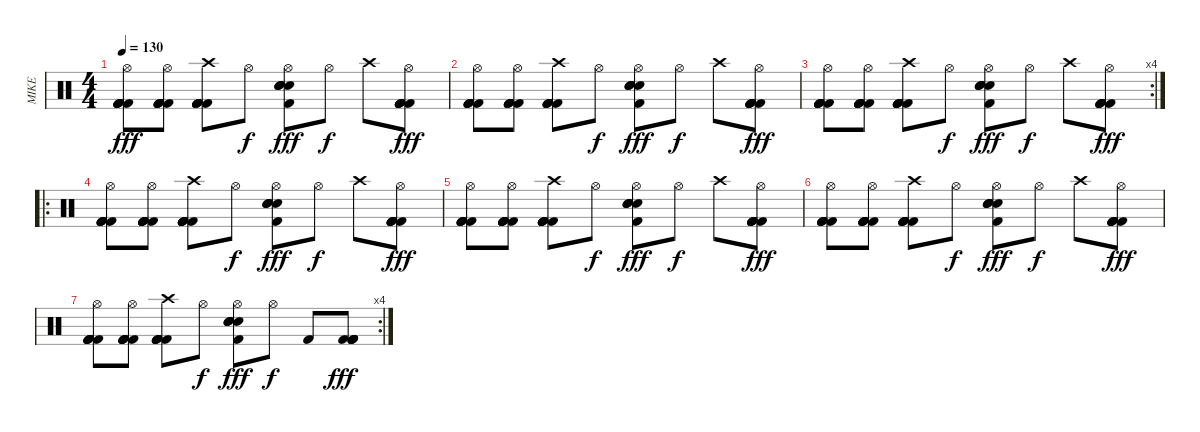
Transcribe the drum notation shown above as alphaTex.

\track ("MIKE" "MIKE") {instrument percussion}
\staff {score}
\articulation defaults
\ts (4 4)
\tempo 130
\clef neutral
\ks c
("Hi-Hat (open)" "Kick (hit) 2" "Kick (hit) 2" "Kick (hit) 2" "Kick (hit) 2" "Kick (hit) 2").8{dy fff} ("Hi-Hat (open)" "Kick (hit) 2" "Kick (hit) 2" "Kick (hit) 2" "Kick (hit) 2" "Kick (hit) 2").8 ("Crash high (hit)" "Kick (hit) 2" "Kick (hit) 2" "Kick (hit) 2" "Kick (hit) 2" "Kick (hit) 2").8 "Hi-Hat (open)".8{dy f} ("Hi-Hat (open)" "Kick (hit) 2" "Snare (hit) 2" "Snare (hit) 2" "Snare (hit) 2" "Snare (hit) 2").8{dy fff} "Hi-Hat (open)".8{dy f} "Crash high (hit)".8 ("Hi-Hat (open)" "Kick (hit) 2" "Kick (hit) 2" "Kick (hit) 2" "Kick (hit) 2" "Kick (hit) 2").8{dy fff} |
("Hi-Hat (open)" "Kick (hit) 2" "Kick (hit) 2" "Kick (hit) 2" "Kick (hit) 2" "Kick (hit) 2").8 ("Hi-Hat (open)" "Kick (hit) 2" "Kick (hit) 2" "Kick (hit) 2" "Kick (hit) 2" "Kick (hit) 2").8 ("Crash high (hit)" "Kick (hit) 2" "Kick (hit) 2" "Kick (hit) 2" "Kick (hit) 2" "Kick (hit) 2").8 "Hi-Hat (open)".8{dy f} ("Hi-Hat (open)" "Kick (hit) 2" "Snare (hit) 2" "Snare (hit) 2" "Snare (hit) 2" "Snare (hit) 2").8{dy fff} "Hi-Hat (open)".8{dy f} "Crash high (hit)".8 ("Hi-Hat (open)" "Kick (hit) 2" "Kick (hit) 2" "Kick (hit) 2" "Kick (hit) 2" "Kick (hit) 2").8{dy fff} |
\rc 4
("Hi-Hat (open)" "Kick (hit) 2" "Kick (hit) 2" "Kick (hit) 2" "Kick (hit) 2" "Kick (hit) 2").8 ("Hi-Hat (open)" "Kick (hit) 2" "Kick (hit) 2" "Kick (hit) 2" "Kick (hit) 2" "Kick (hit) 2").8 ("Crash high (hit)" "Kick (hit) 2" "Kick (hit) 2" "Kick (hit) 2" "Kick (hit) 2" "Kick (hit) 2").8 "Hi-Hat (open)".8{dy f} ("Hi-Hat (open)" "Kick (hit) 2" "Snare (hit) 2" "Snare (hit) 2" "Snare (hit) 2" "Snare (hit) 2").8{dy fff} "Hi-Hat (open)".8{dy f} "Crash high (hit)".8 ("Hi-Hat (open)" "Kick (hit) 2" "Kick (hit) 2" "Kick (hit) 2" "Kick (hit) 2" "Kick (hit) 2").8{dy fff} |
\ro
("Hi-Hat (open)" "Kick (hit) 2" "Kick (hit) 2" "Kick (hit) 2" "Kick (hit) 2" "Kick (hit) 2").8 ("Hi-Hat (open)" "Kick (hit) 2" "Kick (hit) 2" "Kick (hit) 2" "Kick (hit) 2" "Kick (hit) 2").8 ("Crash high (hit)" "Kick (hit) 2" "Kick (hit) 2" "Kick (hit) 2" "Kick (hit) 2" "Kick (hit) 2").8 "Hi-Hat (open)".8{dy f} ("Hi-Hat (open)" "Kick (hit) 2" "Snare (hit) 2" "Snare (hit) 2" "Snare (hit) 2" "Snare (hit) 2").8{dy fff} "Hi-Hat (open)".8{dy f} "Crash high (hit)".8 ("Hi-Hat (open)" "Kick (hit) 2" "Kick (hit) 2" "Kick (hit) 2" "Kick (hit) 2" "Kick (hit) 2").8{dy fff} |
("Hi-Hat (open)" "Kick (hit) 2" "Kick (hit) 2" "Kick (hit) 2" "Kick (hit) 2" "Kick (hit) 2").8 ("Hi-Hat (open)" "Kick (hit) 2" "Kick (hit) 2" "Kick (hit) 2" "Kick (hit) 2" "Kick (hit) 2").8 ("Crash high (hit)" "Kick (hit) 2" "Kick (hit) 2" "Kick (hit) 2" "Kick (hit) 2" "Kick (hit) 2").8 "Hi-Hat (open)".8{dy f} ("Hi-Hat (open)" "Kick (hit) 2" "Snare (hit) 2" "Snare (hit) 2" "Snare (hit) 2" "Snare (hit) 2").8{dy fff} "Hi-Hat (open)".8{dy f} "Crash high (hit)".8 ("Hi-Hat (open)" "Kick (hit) 2" "Kick (hit) 2" "Kick (hit) 2" "Kick (hit) 2" "Kick (hit) 2").8{dy fff} |
("Hi-Hat (open)" "Kick (hit) 2" "Kick (hit) 2" "Kick (hit) 2" "Kick (hit) 2" "Kick (hit) 2").8 ("Hi-Hat (open)" "Kick (hit) 2" "Kick (hit) 2" "Kick (hit) 2" "Kick (hit) 2" "Kick (hit) 2").8 ("Crash high (hit)" "Kick (hit) 2" "Kick (hit) 2" "Kick (hit) 2" "Kick (hit) 2" "Kick (hit) 2").8 "Hi-Hat (open)".8{dy f} ("Hi-Hat (open)" "Kick (hit) 2" "Snare (hit) 2" "Snare (hit) 2" "Snare (hit) 2" "Snare (hit) 2").8{dy fff} "Hi-Hat (open)".8{dy f} "Crash high (hit)".8 ("Hi-Hat (open)" "Kick (hit) 2" "Kick (hit) 2" "Kick (hit) 2" "Kick (hit) 2" "Kick (hit) 2").8{dy fff} |
\rc 4
("Hi-Hat (open)" "Kick (hit) 2" "Kick (hit) 2" "Kick (hit) 2" "Kick (hit) 2" "Kick (hit) 2").8 ("Hi-Hat (open)" "Kick (hit) 2" "Kick (hit) 2" "Kick (hit) 2" "Kick (hit) 2" "Kick (hit) 2").8 ("Crash high (hit)" "Kick (hit) 2" "Kick (hit) 2" "Kick (hit) 2" "Kick (hit) 2" "Kick (hit) 2").8 "Hi-Hat (open)".8{dy f} ("Hi-Hat (open)" "Kick (hit) 2" "Snare (hit) 2" "Snare (hit) 2" "Snare (hit) 2" "Snare (hit) 2").8{dy fff} "Hi-Hat (open)".8{dy f} "Kick (hit) 2".8 ("Kick (hit) 2" "Kick (hit) 2" "Kick (hit) 2" "Kick (hit) 2" "Kick (hit) 2").8{dy fff}
